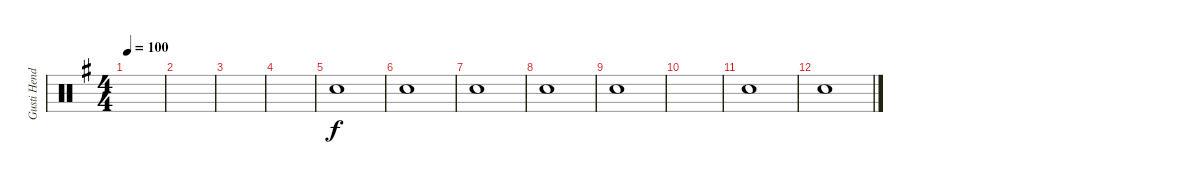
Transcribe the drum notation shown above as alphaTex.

\track ("Gusti Hendy" "Gusti Hend") {instrument percussion}
\staff {score}
\articulation defaults
\ts (4 4)
\tempo 100
\clef neutral
\ks g
|
|
|
|
"Snare (hit)".1 |
"Snare (hit)".1 |
"Snare (hit)".1 |
"Snare (hit)".1 |
"Snare (hit)".1 |
|
"Snare (hit)".1 |
"Snare (hit)".1
